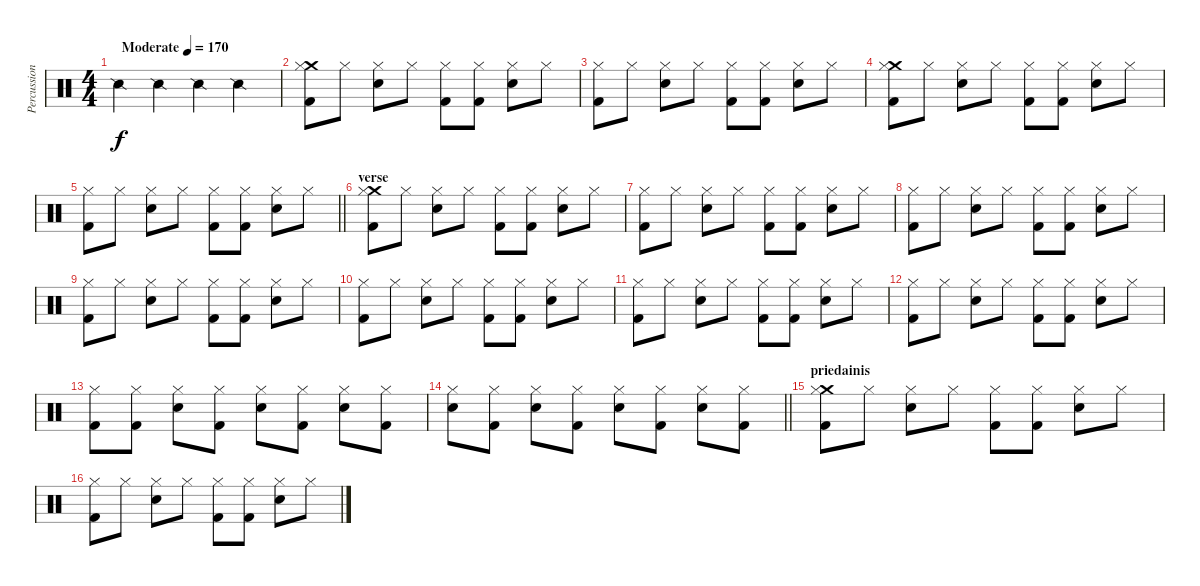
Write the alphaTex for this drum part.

\track ("Percussion" "Percussion") {instrument percussion}
\staff {score}
\articulation defaults
\ts (4 4)
\tempo (170 "Moderate")
\clef neutral
\ks c "Snare (side stick) 2".4{dy f} "Snare (side stick) 2".4 "Snare (side stick) 2".4 "Snare (side stick) 2".4
|
("Crash medium (hit)" "Hi-Hat (closed)" "Kick (hit) 2").8 "Hi-Hat (closed)".8 ("Hi-Hat (closed)" "Snare (hit) 2").8 "Hi-Hat (closed)".8 ("Hi-Hat (closed)" "Kick (hit) 2").8 ("Hi-Hat (closed)" "Kick (hit) 2").8 ("Hi-Hat (closed)" "Snare (hit) 2").8 "Hi-Hat (closed)".8 |
("Hi-Hat (closed)" "Kick (hit) 2").8 "Hi-Hat (closed)".8 ("Hi-Hat (closed)" "Snare (hit) 2").8 "Hi-Hat (closed)".8 ("Hi-Hat (closed)" "Kick (hit) 2").8 ("Hi-Hat (closed)" "Kick (hit) 2").8 ("Hi-Hat (closed)" "Snare (hit) 2").8 "Hi-Hat (closed)".8 |
("Crash medium (hit)" "Hi-Hat (closed)" "Kick (hit) 2").8 "Hi-Hat (closed)".8 ("Hi-Hat (closed)" "Snare (hit) 2").8 "Hi-Hat (closed)".8 ("Hi-Hat (closed)" "Kick (hit) 2").8 ("Hi-Hat (closed)" "Kick (hit) 2").8 ("Hi-Hat (closed)" "Snare (hit) 2").8 "Hi-Hat (closed)".8 |
\barLineRight lightlight
("Hi-Hat (closed)" "Kick (hit) 2").8 "Hi-Hat (closed)".8 ("Hi-Hat (closed)" "Snare (hit) 2").8 "Hi-Hat (closed)".8 ("Hi-Hat (closed)" "Kick (hit) 2").8 ("Hi-Hat (closed)" "Kick (hit) 2").8 ("Hi-Hat (closed)" "Snare (hit) 2").8 "Hi-Hat (closed)".8 |
\section ("" "verse")
("Crash medium (hit)" "Hi-Hat (closed)" "Kick (hit) 2").8 "Hi-Hat (closed)".8 ("Hi-Hat (closed)" "Snare (hit) 2").8 "Hi-Hat (closed)".8 ("Hi-Hat (closed)" "Kick (hit) 2").8 ("Hi-Hat (closed)" "Kick (hit) 2").8 ("Hi-Hat (closed)" "Snare (hit) 2").8 "Hi-Hat (closed)".8 |
("Hi-Hat (closed)" "Kick (hit) 2").8 "Hi-Hat (closed)".8 ("Hi-Hat (closed)" "Snare (hit) 2").8 "Hi-Hat (closed)".8 ("Hi-Hat (closed)" "Kick (hit) 2").8 ("Hi-Hat (closed)" "Kick (hit) 2").8 ("Hi-Hat (closed)" "Snare (hit) 2").8 "Hi-Hat (closed)".8 |
("Hi-Hat (closed)" "Kick (hit) 2").8 "Hi-Hat (closed)".8 ("Hi-Hat (closed)" "Snare (hit) 2").8 "Hi-Hat (closed)".8 ("Hi-Hat (closed)" "Kick (hit) 2").8 ("Hi-Hat (closed)" "Kick (hit) 2").8 ("Hi-Hat (closed)" "Snare (hit) 2").8 "Hi-Hat (closed)".8 |
("Hi-Hat (closed)" "Kick (hit) 2").8 "Hi-Hat (closed)".8 ("Hi-Hat (closed)" "Snare (hit) 2").8 "Hi-Hat (closed)".8 ("Hi-Hat (closed)" "Kick (hit) 2").8 ("Hi-Hat (closed)" "Kick (hit) 2").8 ("Hi-Hat (closed)" "Snare (hit) 2").8 "Hi-Hat (closed)".8 |
("Hi-Hat (closed)" "Kick (hit) 2").8 "Hi-Hat (closed)".8 ("Hi-Hat (closed)" "Snare (hit) 2").8 "Hi-Hat (closed)".8 ("Hi-Hat (closed)" "Kick (hit) 2").8 ("Hi-Hat (closed)" "Kick (hit) 2").8 ("Hi-Hat (closed)" "Snare (hit) 2").8 "Hi-Hat (closed)".8 |
("Hi-Hat (closed)" "Kick (hit) 2").8 "Hi-Hat (closed)".8 ("Hi-Hat (closed)" "Snare (hit) 2").8 "Hi-Hat (closed)".8 ("Hi-Hat (closed)" "Kick (hit) 2").8 ("Hi-Hat (closed)" "Kick (hit) 2").8 ("Hi-Hat (closed)" "Snare (hit) 2").8 "Hi-Hat (closed)".8 |
("Hi-Hat (closed)" "Kick (hit) 2").8 "Hi-Hat (closed)".8 ("Hi-Hat (closed)" "Snare (hit) 2").8 "Hi-Hat (closed)".8 ("Hi-Hat (closed)" "Kick (hit) 2").8 ("Hi-Hat (closed)" "Kick (hit) 2").8 ("Hi-Hat (closed)" "Snare (hit) 2").8 "Hi-Hat (closed)".8 |
("Hi-Hat (closed)" "Kick (hit) 2").8 ("Hi-Hat (closed)" "Kick (hit) 2").8 ("Hi-Hat (closed)" "Snare (hit) 2").8 ("Hi-Hat (closed)" "Kick (hit) 2").8 ("Hi-Hat (closed)" "Snare (hit) 2").8 ("Hi-Hat (closed)" "Kick (hit) 2").8 ("Hi-Hat (closed)" "Snare (hit) 2").8 ("Hi-Hat (closed)" "Kick (hit) 2").8 |
\barLineRight lightlight
("Hi-Hat (closed)" "Snare (hit) 2").8 ("Hi-Hat (closed)" "Kick (hit) 2").8 ("Hi-Hat (closed)" "Snare (hit) 2").8 ("Hi-Hat (closed)" "Kick (hit) 2").8 ("Hi-Hat (closed)" "Snare (hit) 2").8 ("Hi-Hat (closed)" "Kick (hit) 2").8 ("Hi-Hat (closed)" "Snare (hit) 2").8 ("Hi-Hat (closed)" "Kick (hit) 2").8 |
\section ("" "priedainis")
("Crash medium (hit)" "Hi-Hat (closed)" "Kick (hit) 2").8 "Hi-Hat (closed)".8 ("Hi-Hat (closed)" "Snare (hit) 2").8 "Hi-Hat (closed)".8 ("Hi-Hat (closed)" "Kick (hit) 2").8 ("Hi-Hat (closed)" "Kick (hit) 2").8 ("Hi-Hat (closed)" "Snare (hit) 2").8 "Hi-Hat (closed)".8 |
("Hi-Hat (closed)" "Kick (hit) 2").8 "Hi-Hat (closed)".8 ("Hi-Hat (closed)" "Snare (hit) 2").8 "Hi-Hat (closed)".8 ("Hi-Hat (closed)" "Kick (hit) 2").8 ("Hi-Hat (closed)" "Kick (hit) 2").8 ("Hi-Hat (closed)" "Snare (hit) 2").8 "Hi-Hat (closed)".8
